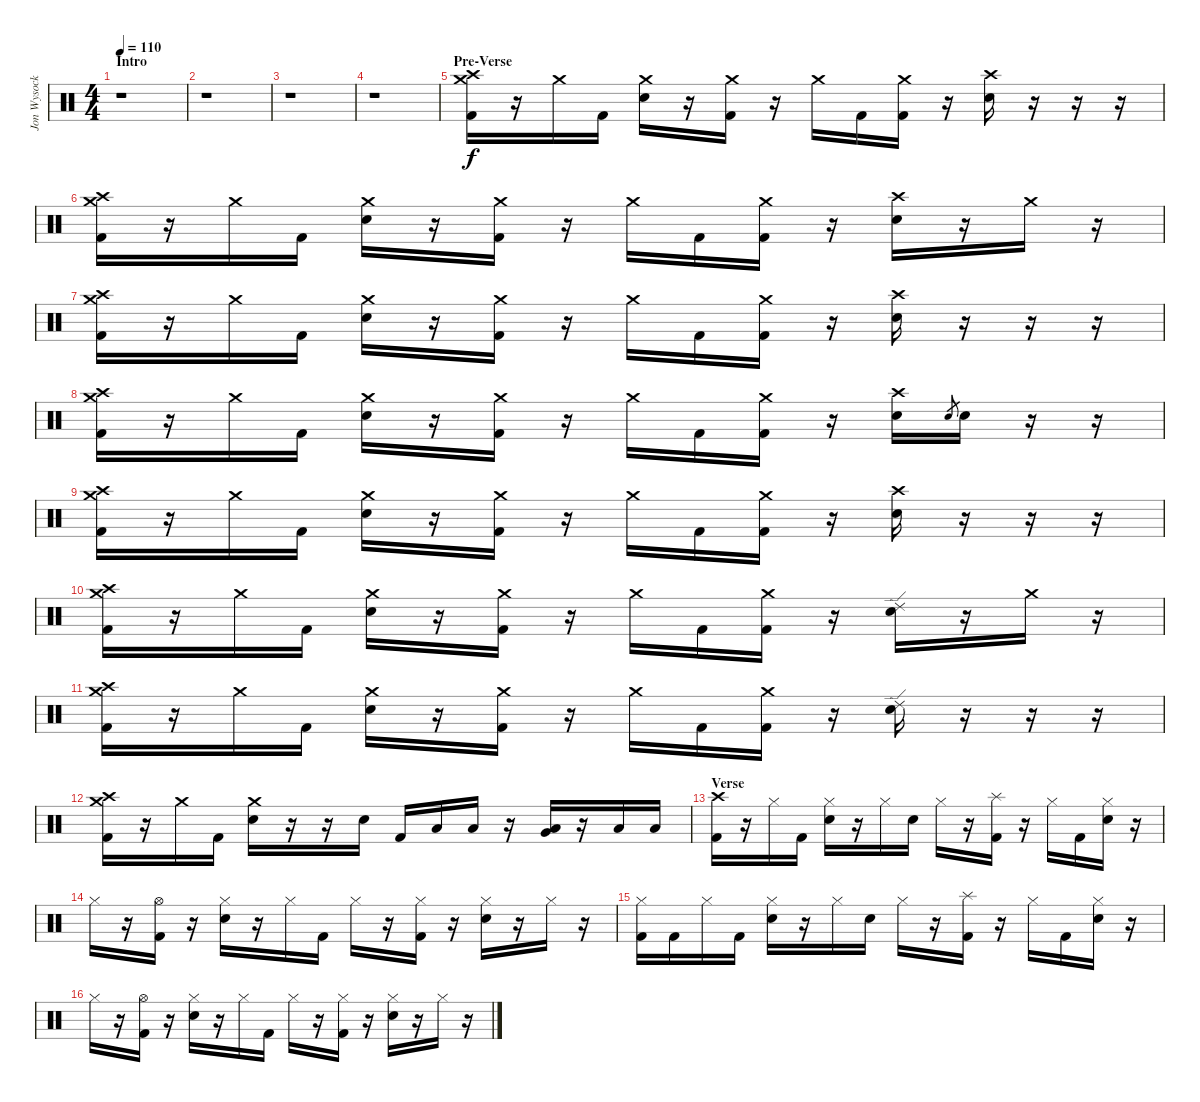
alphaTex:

\track ("Jon Wysocki" "Jon Wysock") {instrument percussion}
\staff {score}
\articulation defaults
\ts (4 4)
\section ("" "Intro")
\tempo 110
\clef neutral
\ks c
r.1{dy f} |
r.1 |
r.1 |
r.1 |
\section ("" "Pre-Verse")
("Crash medium (hit)" "Crash high (hit)" "Kick (hit) 2").16 r.16 "Crash medium (hit)".16 "Kick (hit) 2".16 ("Crash medium (hit)" "Snare (hit) 2").16 r.16 ("Crash medium (hit)" "Kick (hit) 2").16 r.16 "Crash medium (hit)".16 "Kick (hit) 2".16 ("Crash medium (hit)" "Kick (hit) 2").16 r.16 ("Crash high (hit)" "Snare (hit) 2").16 r.16 r.16 r.16 |
("Crash medium (hit)" "Crash high (hit)" "Kick (hit) 2").16 r.16 "Crash medium (hit)".16 "Kick (hit) 2".16 ("Crash medium (hit)" "Snare (hit) 2").16 r.16 ("Crash medium (hit)" "Kick (hit) 2").16 r.16 "Crash medium (hit)".16 "Kick (hit) 2".16 ("Crash medium (hit)" "Kick (hit) 2").16 r.16 ("Crash high (hit)" "Snare (hit) 2").16 r.16 "Crash medium (hit)".16 r.16 |
("Crash medium (hit)" "Crash high (hit)" "Kick (hit) 2").16 r.16 "Crash medium (hit)".16 "Kick (hit) 2".16 ("Crash medium (hit)" "Snare (hit) 2").16 r.16 ("Crash medium (hit)" "Kick (hit) 2").16 r.16 "Crash medium (hit)".16 "Kick (hit) 2".16 ("Crash medium (hit)" "Kick (hit) 2").16 r.16 ("Crash high (hit)" "Snare (hit) 2").16 r.16 r.16 r.16 |
("Crash medium (hit)" "Crash high (hit)" "Kick (hit) 2").16 r.16 "Crash medium (hit)".16 "Kick (hit) 2".16 ("Crash medium (hit)" "Snare (hit) 2").16 r.16 ("Crash medium (hit)" "Kick (hit) 2").16 r.16 "Crash medium (hit)".16 "Kick (hit) 2".16 ("Crash medium (hit)" "Kick (hit) 2").16 r.16 ("Crash high (hit)" "Snare (hit) 2").16 "Snare (hit) 2".8{gr} "Snare (hit) 2".16 r.16 r.16 |
("Crash medium (hit)" "Crash high (hit)" "Kick (hit) 2").16 r.16 "Crash medium (hit)".16 "Kick (hit) 2".16 ("Crash medium (hit)" "Snare (hit) 2").16 r.16 ("Crash medium (hit)" "Kick (hit) 2").16 r.16 "Crash medium (hit)".16 "Kick (hit) 2".16 ("Crash medium (hit)" "Kick (hit) 2").16 r.16 ("Crash high (hit)" "Snare (hit) 2").16 r.16 r.16 r.16 |
("Crash medium (hit)" "Crash high (hit)" "Kick (hit) 2").16 r.16 "Crash medium (hit)".16 "Kick (hit) 2".16 ("Crash medium (hit)" "Snare (hit) 2").16 r.16 ("Crash medium (hit)" "Kick (hit) 2").16 r.16 "Crash medium (hit)".16 "Kick (hit) 2".16 ("Crash medium (hit)" "Kick (hit) 2").16 r.16 ("Ride (edge) 2" "Snare (hit) 2").16 r.16 "Crash medium (hit)".16 r.16 |
("Crash medium (hit)" "Crash high (hit)" "Kick (hit) 2").16 r.16 "Crash medium (hit)".16 "Kick (hit) 2".16 ("Crash medium (hit)" "Snare (hit) 2").16 r.16 ("Crash medium (hit)" "Kick (hit) 2").16 r.16 "Crash medium (hit)".16 "Kick (hit) 2".16 ("Crash medium (hit)" "Kick (hit) 2").16 r.16 ("Ride (edge) 2" "Snare (hit) 2").16 r.16 r.16 r.16 |
("Crash medium (hit)" "Crash high (hit)" "Kick (hit) 2").16 r.16 "Crash medium (hit)".16 "Kick (hit) 2".16 ("Crash medium (hit)" "Snare (hit) 2").16 r.16 r.16 "Snare (hit) 2".16 "Kick (hit) 2".16 "Low Tom (hit)".16 "Low Tom (hit)".16 r.16 ("Very Low Tom (hit)" "Low Floor Tom (hit)").16 r.16 "Low Floor Tom (hit)".16 "Low Floor Tom (hit)".16 |
\section ("" "Verse")
("Crash high (hit)" "Kick (hit) 2").16 r.16 "Hi-Hat (closed)".16 "Kick (hit) 2".16 ("Hi-Hat (closed)" "Snare (hit) 2").16 r.16 "Hi-Hat (closed)".16 "Snare (hit) 2".16 "Hi-Hat (closed)".16 r.16 ("Splash (hit)" "Kick (hit) 2").16 r.16 "Hi-Hat (closed)".16 "Kick (hit) 2".16 ("Hi-Hat (closed)" "Snare (hit) 2").16 r.16 |
"Hi-Hat (closed)".16 r.16 ("Hi-Hat (open)" "Kick (hit) 2").16 r.16 ("Hi-Hat (closed)" "Snare (hit) 2").16 r.16 "Hi-Hat (closed)".16 "Kick (hit) 2".16 "Hi-Hat (closed)".16 r.16 ("Hi-Hat (closed)" "Kick (hit) 2").16 r.16 ("Hi-Hat (closed)" "Snare (hit) 2").16 r.16 "Hi-Hat (closed)".16 r.16 |
("Hi-Hat (closed)" "Kick (hit) 2").16 "Kick (hit) 2".16 "Hi-Hat (closed)".16 "Kick (hit) 2".16 ("Hi-Hat (closed)" "Snare (hit) 2").16 r.16 "Hi-Hat (closed)".16 "Snare (hit) 2".16 "Hi-Hat (closed)".16 r.16 ("Splash (hit)" "Kick (hit) 2").16 r.16 "Hi-Hat (closed)".16 "Kick (hit) 2".16 ("Hi-Hat (closed)" "Snare (hit) 2").16 r.16 |
"Hi-Hat (closed)".16 r.16 ("Hi-Hat (open)" "Kick (hit) 2").16 r.16 ("Hi-Hat (closed)" "Snare (hit) 2").16 r.16 "Hi-Hat (closed)".16 "Kick (hit) 2".16 "Hi-Hat (closed)".16 r.16 ("Hi-Hat (closed)" "Kick (hit) 2").16 r.16 ("Hi-Hat (closed)" "Snare (hit) 2").16 r.16 "Hi-Hat (closed)".16 r.16
